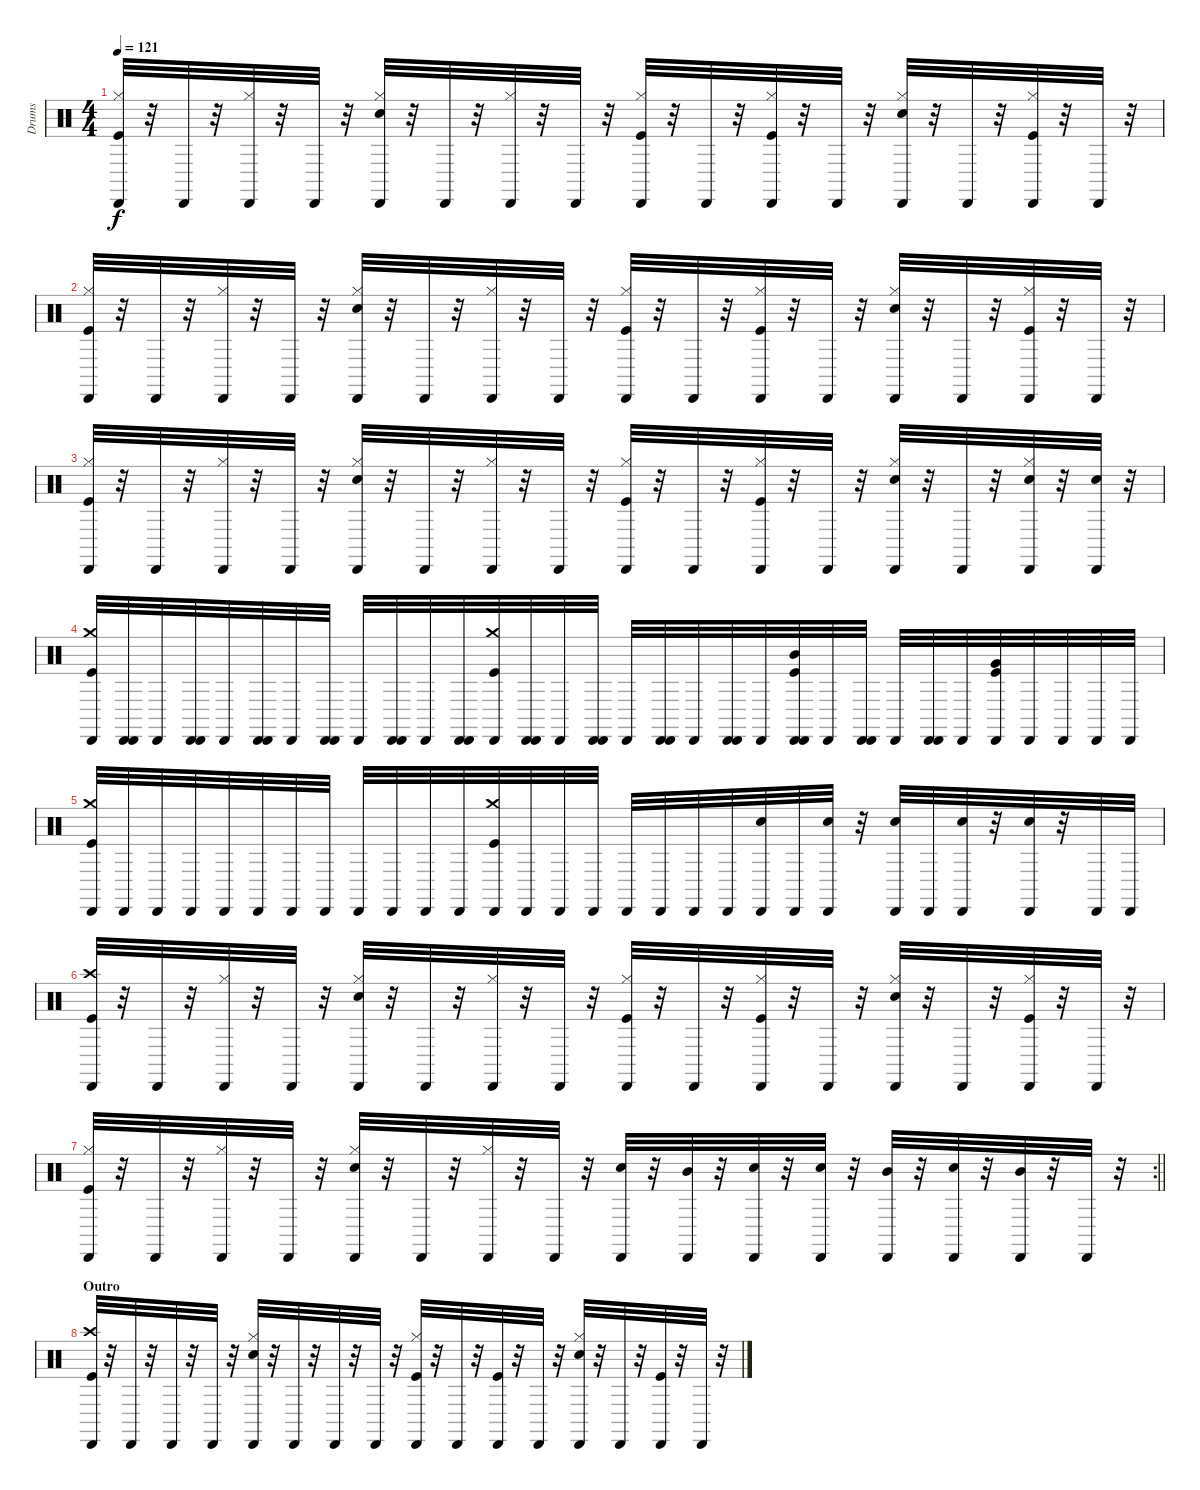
\track ("Drums" "Drums") {instrument percussion}
\staff {score}
\articulation defaults
\ts (4 4)
\tempo 121
\clef neutral
\ks c
("Hi-Hat (closed)" "Kick (hit)" "Cabasa (hit)").32{dy f} r.32 "Cabasa (hit)".32 r.32 ("Hi-Hat (closed)" "Cabasa (hit)").32 r.32 "Cabasa (hit)".32 r.32 ("Hi-Hat (closed)" "Snare (hit) 2" "Cabasa (hit)").32 r.32 "Cabasa (hit)".32 r.32 ("Hi-Hat (closed)" "Cabasa (hit)").32 r.32 "Cabasa (hit)".32 r.32 ("Hi-Hat (closed)" "Cabasa (hit)" "Kick (hit)").32 r.32 "Cabasa (hit)".32 r.32 ("Hi-Hat (closed)" "Cabasa (hit)" "Kick (hit)").32 r.32 "Cabasa (hit)".32 r.32 ("Hi-Hat (closed)" "Cabasa (hit)" "Snare (hit) 2").32 r.32 "Cabasa (hit)".32 r.32 ("Hi-Hat (closed)" "Kick (hit)" "Cabasa (hit)").32 r.32 "Cabasa (hit)".32 r.32 |
("Hi-Hat (closed)" "Kick (hit)" "Cabasa (hit)").32 r.32 "Cabasa (hit)".32 r.32 ("Hi-Hat (closed)" "Cabasa (hit)").32 r.32 "Cabasa (hit)".32 r.32 ("Hi-Hat (closed)" "Cabasa (hit)" "Snare (hit) 2").32 r.32 "Cabasa (hit)".32 r.32 ("Hi-Hat (closed)" "Cabasa (hit)").32 r.32 "Cabasa (hit)".32 r.32 ("Hi-Hat (closed)" "Cabasa (hit)" "Kick (hit)").32 r.32 "Cabasa (hit)".32 r.32 ("Hi-Hat (closed)" "Kick (hit)" "Cabasa (hit)").32 r.32 "Cabasa (hit)".32 r.32 ("Hi-Hat (closed)" "Snare (hit) 2" "Cabasa (hit)").32 r.32 "Cabasa (hit)".32 r.32 ("Hi-Hat (closed)" "Kick (hit)" "Cabasa (hit)").32 r.32 "Cabasa (hit)".32 r.32 |
("Hi-Hat (closed)" "Kick (hit)" "Cabasa (hit)").32 r.32 "Cabasa (hit)".32 r.32 ("Hi-Hat (closed)" "Cabasa (hit)").32 r.32 "Cabasa (hit)".32 r.32 ("Hi-Hat (closed)" "Cabasa (hit)" "Snare (hit) 2").32 r.32 "Cabasa (hit)".32 r.32 ("Hi-Hat (closed)" "Cabasa (hit)").32 r.32 "Cabasa (hit)".32 r.32 ("Hi-Hat (closed)" "Cabasa (hit)" "Kick (hit)").32 r.32 "Cabasa (hit)".32 r.32 ("Hi-Hat (closed)" "Cabasa (hit)" "Kick (hit)").32 r.32 "Cabasa (hit)".32 r.32 ("Hi-Hat (closed)" "Cabasa (hit)" "Snare (hit) 2").32 r.32 "Cabasa (hit)".32 r.32 ("Hi-Hat (closed)" "Snare (hit) 2" "Cabasa (hit)").32 r.32 ("Cabasa (hit)" "Snare (hit) 2").32 r.32 |
("Cabasa (hit)" "Crash medium (hit)" "Kick (hit)").32 ("Cabasa (hit)" "Cabasa (hit)").32 "Cabasa (hit)".32 ("Cabasa (hit)" "Cabasa (hit)").32 "Cabasa (hit)".32 ("Cabasa (hit)" "Cabasa (hit)").32 "Cabasa (hit)".32 ("Cabasa (hit)" "Cabasa (hit)").32 "Cabasa (hit)".32 ("Cabasa (hit)" "Cabasa (hit)").32 "Cabasa (hit)".32 ("Cabasa (hit)" "Cabasa (hit)").32 ("Crash medium (hit)" "Cabasa (hit)" "Kick (hit)").32 ("Cabasa (hit)" "Cabasa (hit)").32 "Cabasa (hit)".32 ("Cabasa (hit)" "Cabasa (hit)").32 "Cabasa (hit)".32 ("Cabasa (hit)" "Cabasa (hit)").32 "Cabasa (hit)".32 ("Cabasa (hit)" "Cabasa (hit)").32 "Cabasa (hit)".32 ("Cabasa (hit)" "Cabasa (hit)" "Kick (hit)" "Mid Tom (hit)").32 "Cabasa (hit)".32 ("Cabasa (hit)" "Cabasa (hit)").32 "Cabasa (hit)".32 ("Cabasa (hit)" "Cabasa (hit)").32 "Cabasa (hit)".32 ("Very Low Tom (hit)" "Kick (hit)" "Cabasa (hit)").32 "Cabasa (hit)".32 "Cabasa (hit)".32 "Cabasa (hit)".32 "Cabasa (hit)".32 |
("Cabasa (hit)" "Crash medium (hit)" "Kick (hit)").32 "Cabasa (hit)".32 "Cabasa (hit)".32 "Cabasa (hit)".32 "Cabasa (hit)".32 "Cabasa (hit)".32 "Cabasa (hit)".32 "Cabasa (hit)".32 "Cabasa (hit)".32 "Cabasa (hit)".32 "Cabasa (hit)".32 "Cabasa (hit)".32 ("Kick (hit)" "Crash medium (hit)" "Cabasa (hit)").32 "Cabasa (hit)".32 "Cabasa (hit)".32 "Cabasa (hit)".32 "Cabasa (hit)".32 "Cabasa (hit)".32 "Cabasa (hit)".32 "Cabasa (hit)".32 ("Snare (hit) 2" "Cabasa (hit)").32 "Cabasa (hit)".32 ("Snare (hit) 2" "Cabasa (hit)").32 r.32 ("Cabasa (hit)" "Snare (hit) 2").32 "Cabasa (hit)".32 ("Snare (hit) 2" "Cabasa (hit)").32 r.32 ("Cabasa (hit)" "Snare (hit) 2").32 r.32 "Cabasa (hit)".32 "Cabasa (hit)".32 |
("Cabasa (hit)" "Kick (hit)" "Crash high (hit)").32 r.32 "Cabasa (hit)".32 r.32 ("Hi-Hat (closed)" "Cabasa (hit)").32 r.32 "Cabasa (hit)".32 r.32 ("Hi-Hat (closed)" "Cabasa (hit)" "Snare (hit) 2").32 r.32 "Cabasa (hit)".32 r.32 ("Hi-Hat (closed)" "Cabasa (hit)").32 r.32 "Cabasa (hit)".32 r.32 ("Hi-Hat (closed)" "Kick (hit)" "Cabasa (hit)").32 r.32 "Cabasa (hit)".32 r.32 ("Hi-Hat (closed)" "Kick (hit)" "Cabasa (hit)").32 r.32 "Cabasa (hit)".32 r.32 ("Hi-Hat (closed)" "Snare (hit) 2" "Cabasa (hit)").32 r.32 "Cabasa (hit)".32 r.32 ("Hi-Hat (closed)" "Cabasa (hit)" "Kick (hit)").32 r.32 "Cabasa (hit)".32 r.32 |
\rc 2
\barLineRight lightlight
("Hi-Hat (closed)" "Cabasa (hit)" "Kick (hit)").32 r.32 "Cabasa (hit)".32 r.32 ("Hi-Hat (closed)" "Cabasa (hit)").32 r.32 "Cabasa (hit)".32 r.32 ("Hi-Hat (closed)" "Cabasa (hit)" "Snare (hit) 2").32 r.32 "Cabasa (hit)".32 r.32 ("Hi-Hat (closed)" "Cabasa (hit)").32 r.32 "Cabasa (hit)".32 r.32 ("Cabasa (hit)" "Snare (hit) 2").32 r.32 ("Mid Tom (hit)" "Cabasa (hit)").32 r.32 ("Snare (hit) 2" "Cabasa (hit)").32 r.32 ("Cabasa (hit)" "Snare (hit) 2").32 r.32 ("Mid Tom (hit)" "Cabasa (hit)").32 r.32 ("Cabasa (hit)" "Snare (hit) 2").32 r.32 ("Mid Tom (hit)" "Cabasa (hit)").32 r.32 "Cabasa (hit)".32 r.32 |
\section ("" "Outro")
("Kick (hit)" "Crash high (hit)" "Cabasa (hit)").32 r.32 "Cabasa (hit)".32 r.32 "Cabasa (hit)".32 r.32 "Cabasa (hit)".32 r.32 ("Hi-Hat (closed)" "Cabasa (hit)" "Snare (hit) 2").32 r.32 "Cabasa (hit)".32 r.32 "Cabasa (hit)".32 r.32 "Cabasa (hit)".32 r.32 ("Hi-Hat (closed)" "Kick (hit)" "Cabasa (hit)").32 r.32 "Cabasa (hit)".32 r.32 ("Cabasa (hit)" "Kick (hit)").32 r.32 "Cabasa (hit)".32 r.32 ("Hi-Hat (closed)" "Snare (hit) 2" "Cabasa (hit)").32 r.32 "Cabasa (hit)".32 r.32 ("Kick (hit)" "Cabasa (hit)").32 r.32 "Cabasa (hit)".32 r.32
